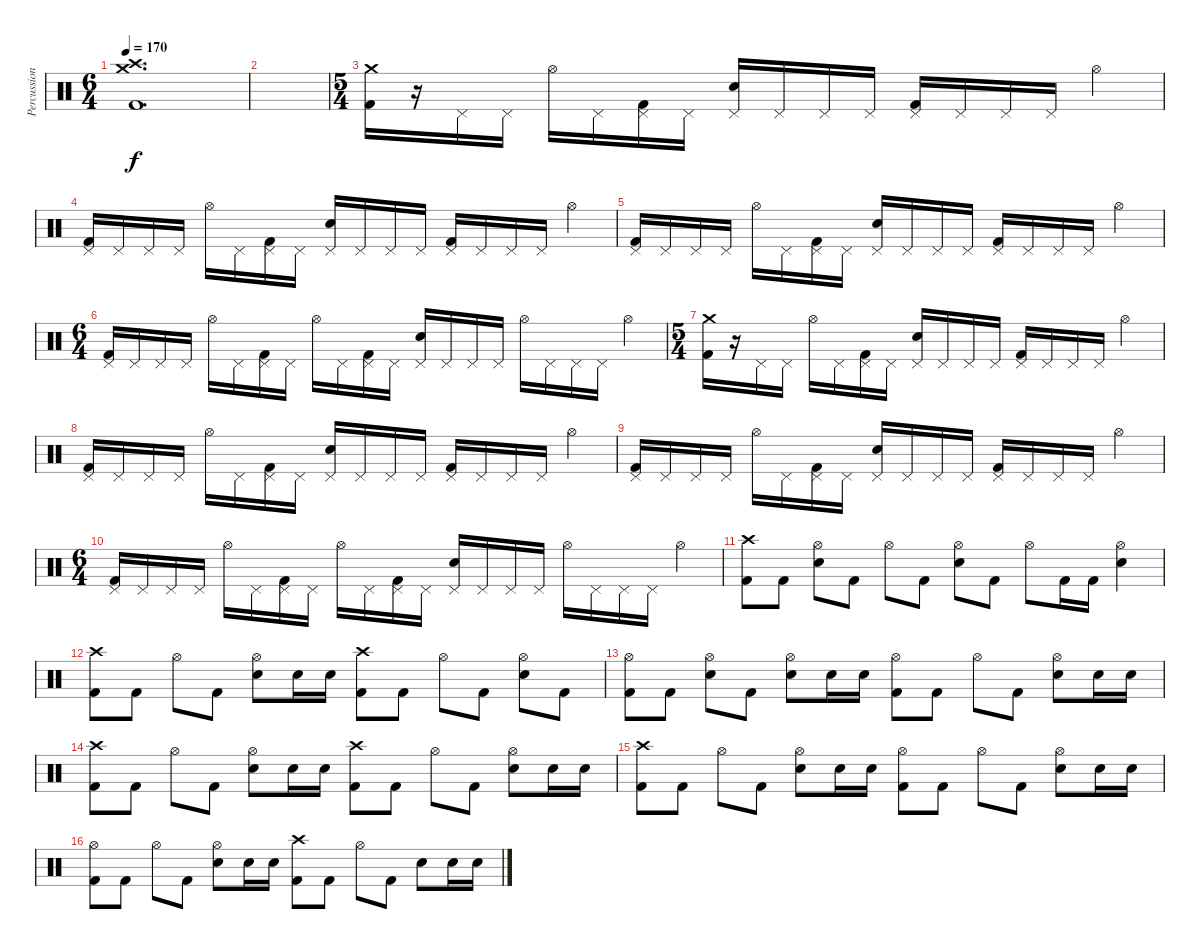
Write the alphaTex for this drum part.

\track ("Percussion" "Percussion") {instrument percussion}
\staff {score}
\articulation defaults
\ts (6 4)
\tempo 170
\clef neutral
\ks c
("Crash medium (hit)" "Crash high (hit)" "Kick (hit) 2").1{d dy f} |
|
\ts (5 4)
("Crash medium (hit)" "Kick (hit) 2").16 r.16 "Pedal Hi-Hat (hit)".16 "Pedal Hi-Hat (hit)".16 "Hi-Hat (open)".16 "Pedal Hi-Hat (hit)".16 ("Pedal Hi-Hat (hit)" "Kick (hit) 2").16 "Pedal Hi-Hat (hit)".16 ("Pedal Hi-Hat (hit)" "Electric Snare (hit)").16 "Pedal Hi-Hat (hit)".16 "Pedal Hi-Hat (hit)".16 "Pedal Hi-Hat (hit)".16 ("Pedal Hi-Hat (hit)" "Kick (hit) 2").16 "Pedal Hi-Hat (hit)".16 "Pedal Hi-Hat (hit)".16 "Pedal Hi-Hat (hit)".16 "Hi-Hat (open)".4 |
("Pedal Hi-Hat (hit)" "Kick (hit) 2").16 "Pedal Hi-Hat (hit)".16 "Pedal Hi-Hat (hit)".16 "Pedal Hi-Hat (hit)".16 "Hi-Hat (open)".16 "Pedal Hi-Hat (hit)".16 ("Pedal Hi-Hat (hit)" "Kick (hit) 2").16 "Pedal Hi-Hat (hit)".16 ("Pedal Hi-Hat (hit)" "Electric Snare (hit)").16 "Pedal Hi-Hat (hit)".16 "Pedal Hi-Hat (hit)".16 "Pedal Hi-Hat (hit)".16 ("Pedal Hi-Hat (hit)" "Kick (hit) 2").16 "Pedal Hi-Hat (hit)".16 "Pedal Hi-Hat (hit)".16 "Pedal Hi-Hat (hit)".16 "Hi-Hat (open)".4 |
("Pedal Hi-Hat (hit)" "Kick (hit) 2").16 "Pedal Hi-Hat (hit)".16 "Pedal Hi-Hat (hit)".16 "Pedal Hi-Hat (hit)".16 "Hi-Hat (open)".16 "Pedal Hi-Hat (hit)".16 ("Pedal Hi-Hat (hit)" "Kick (hit) 2").16 "Pedal Hi-Hat (hit)".16 ("Pedal Hi-Hat (hit)" "Electric Snare (hit)").16 "Pedal Hi-Hat (hit)".16 "Pedal Hi-Hat (hit)".16 "Pedal Hi-Hat (hit)".16 ("Pedal Hi-Hat (hit)" "Kick (hit) 2").16 "Pedal Hi-Hat (hit)".16 "Pedal Hi-Hat (hit)".16 "Pedal Hi-Hat (hit)".16 "Hi-Hat (open)".4 |
\ts (6 4)
("Pedal Hi-Hat (hit)" "Kick (hit) 2").16 "Pedal Hi-Hat (hit)".16 "Pedal Hi-Hat (hit)".16 "Pedal Hi-Hat (hit)".16 "Hi-Hat (open)".16 "Pedal Hi-Hat (hit)".16 ("Pedal Hi-Hat (hit)" "Kick (hit) 2").16 "Pedal Hi-Hat (hit)".16 "Hi-Hat (open)".16 "Pedal Hi-Hat (hit)".16 ("Pedal Hi-Hat (hit)" "Kick (hit) 2").16 "Pedal Hi-Hat (hit)".16 ("Pedal Hi-Hat (hit)" "Electric Snare (hit)").16 "Pedal Hi-Hat (hit)".16 "Pedal Hi-Hat (hit)".16 "Pedal Hi-Hat (hit)".16 "Hi-Hat (open)".16 "Pedal Hi-Hat (hit)".16 "Pedal Hi-Hat (hit)".16 "Pedal Hi-Hat (hit)".16 "Hi-Hat (open)".4 |
\ts (5 4)
("Crash medium (hit)" "Kick (hit) 2").16 r.16 "Pedal Hi-Hat (hit)".16 "Pedal Hi-Hat (hit)".16 "Hi-Hat (open)".16 "Pedal Hi-Hat (hit)".16 ("Pedal Hi-Hat (hit)" "Kick (hit) 2").16 "Pedal Hi-Hat (hit)".16 ("Pedal Hi-Hat (hit)" "Electric Snare (hit)").16 "Pedal Hi-Hat (hit)".16 "Pedal Hi-Hat (hit)".16 "Pedal Hi-Hat (hit)".16 ("Pedal Hi-Hat (hit)" "Kick (hit) 2").16 "Pedal Hi-Hat (hit)".16 "Pedal Hi-Hat (hit)".16 "Pedal Hi-Hat (hit)".16 "Hi-Hat (open)".4 |
("Pedal Hi-Hat (hit)" "Kick (hit) 2").16 "Pedal Hi-Hat (hit)".16 "Pedal Hi-Hat (hit)".16 "Pedal Hi-Hat (hit)".16 "Hi-Hat (open)".16 "Pedal Hi-Hat (hit)".16 ("Pedal Hi-Hat (hit)" "Kick (hit) 2").16 "Pedal Hi-Hat (hit)".16 ("Pedal Hi-Hat (hit)" "Electric Snare (hit)").16 "Pedal Hi-Hat (hit)".16 "Pedal Hi-Hat (hit)".16 "Pedal Hi-Hat (hit)".16 ("Pedal Hi-Hat (hit)" "Kick (hit) 2").16 "Pedal Hi-Hat (hit)".16 "Pedal Hi-Hat (hit)".16 "Pedal Hi-Hat (hit)".16 "Hi-Hat (open)".4 |
("Pedal Hi-Hat (hit)" "Kick (hit) 2").16 "Pedal Hi-Hat (hit)".16 "Pedal Hi-Hat (hit)".16 "Pedal Hi-Hat (hit)".16 "Hi-Hat (open)".16 "Pedal Hi-Hat (hit)".16 ("Pedal Hi-Hat (hit)" "Kick (hit) 2").16 "Pedal Hi-Hat (hit)".16 ("Pedal Hi-Hat (hit)" "Electric Snare (hit)").16 "Pedal Hi-Hat (hit)".16 "Pedal Hi-Hat (hit)".16 "Pedal Hi-Hat (hit)".16 ("Pedal Hi-Hat (hit)" "Kick (hit) 2").16 "Pedal Hi-Hat (hit)".16 "Pedal Hi-Hat (hit)".16 "Pedal Hi-Hat (hit)".16 "Hi-Hat (open)".4 |
\ts (6 4)
("Pedal Hi-Hat (hit)" "Kick (hit) 2").16 "Pedal Hi-Hat (hit)".16 "Pedal Hi-Hat (hit)".16 "Pedal Hi-Hat (hit)".16 "Hi-Hat (open)".16 "Pedal Hi-Hat (hit)".16 ("Pedal Hi-Hat (hit)" "Kick (hit) 2").16 "Pedal Hi-Hat (hit)".16 "Hi-Hat (open)".16 "Pedal Hi-Hat (hit)".16 ("Pedal Hi-Hat (hit)" "Kick (hit) 2").16 "Pedal Hi-Hat (hit)".16 ("Pedal Hi-Hat (hit)" "Electric Snare (hit)").16 "Pedal Hi-Hat (hit)".16 "Pedal Hi-Hat (hit)".16 "Pedal Hi-Hat (hit)".16 "Hi-Hat (open)".16 "Pedal Hi-Hat (hit)".16 "Pedal Hi-Hat (hit)".16 "Pedal Hi-Hat (hit)".16 "Hi-Hat (open)".4 |
("Crash high (hit)" "Kick (hit) 2").8 "Kick (hit) 2".8 ("Hi-Hat (open)" "Electric Snare (hit)").8 "Kick (hit) 2".8 "Hi-Hat (open)".8 "Kick (hit) 2".8 ("Hi-Hat (open)" "Electric Snare (hit)").8 "Kick (hit) 2".8 "Hi-Hat (open)".8 "Kick (hit) 2".16 "Kick (hit) 2".16 ("Hi-Hat (open)" "Electric Snare (hit)").4 |
("Crash high (hit)" "Kick (hit) 2").8 "Kick (hit) 2".8 "Hi-Hat (open)".8 "Kick (hit) 2".8 ("Hi-Hat (open)" "Electric Snare (hit)").8 "Electric Snare (hit)".16 "Electric Snare (hit)".16 ("Crash high (hit)" "Kick (hit) 2").8 "Kick (hit) 2".8 "Hi-Hat (open)".8 "Kick (hit) 2".8 ("Hi-Hat (open)" "Electric Snare (hit)").8 "Kick (hit) 2".8 |
("Hi-Hat (open)" "Kick (hit) 2").8 "Kick (hit) 2".8 ("Hi-Hat (open)" "Electric Snare (hit)").8 "Kick (hit) 2".8 ("Hi-Hat (open)" "Electric Snare (hit)").8 "Electric Snare (hit)".16 "Electric Snare (hit)".16 ("Hi-Hat (open)" "Kick (hit) 2").8 "Kick (hit) 2".8 "Hi-Hat (open)".8 "Kick (hit) 2".8 ("Hi-Hat (open)" "Electric Snare (hit)").8 "Electric Snare (hit)".16 "Electric Snare (hit)".16 |
("Crash high (hit)" "Kick (hit) 2").8 "Kick (hit) 2".8 "Hi-Hat (open)".8 "Kick (hit) 2".8 ("Hi-Hat (open)" "Electric Snare (hit)").8 "Electric Snare (hit)".16 "Electric Snare (hit)".16 ("Crash high (hit)" "Kick (hit) 2").8 "Kick (hit) 2".8 "Hi-Hat (open)".8 "Kick (hit) 2".8 ("Hi-Hat (open)" "Electric Snare (hit)").8 "Electric Snare (hit)".16 "Electric Snare (hit)".16 |
("Crash high (hit)" "Kick (hit) 2").8 "Kick (hit) 2".8 "Hi-Hat (open)".8 "Kick (hit) 2".8 ("Hi-Hat (open)" "Electric Snare (hit)").8 "Electric Snare (hit)".16 "Electric Snare (hit)".16 ("Hi-Hat (open)" "Kick (hit) 2").8 "Kick (hit) 2".8 "Hi-Hat (open)".8 "Kick (hit) 2".8 ("Hi-Hat (open)" "Electric Snare (hit)").8 "Electric Snare (hit)".16 "Electric Snare (hit)".16 |
("Hi-Hat (open)" "Kick (hit) 2").8 "Kick (hit) 2".8 "Hi-Hat (open)".8 "Kick (hit) 2".8 ("Hi-Hat (open)" "Electric Snare (hit)").8 "Electric Snare (hit)".16 "Electric Snare (hit)".16 ("Crash high (hit)" "Kick (hit) 2").8 "Kick (hit) 2".8 "Hi-Hat (open)".8 "Kick (hit) 2".8 "Electric Snare (hit)".8 "Electric Snare (hit)".16 "Electric Snare (hit)".16
